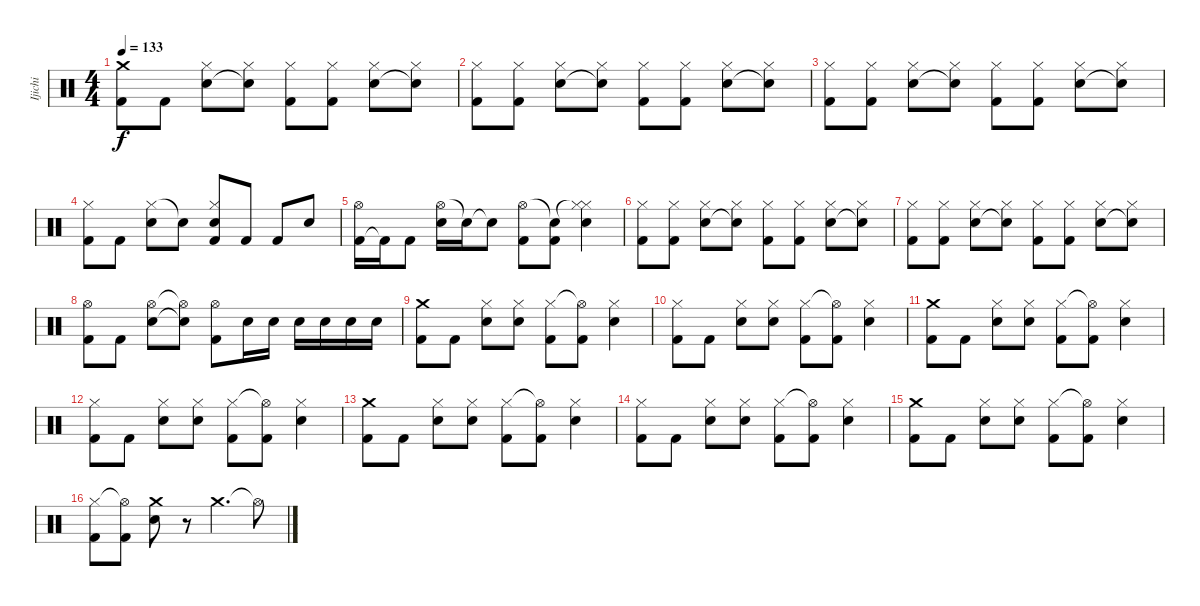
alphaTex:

\track ("Ijichi" "Ijichi") {instrument percussion}
\staff {score}
\articulation defaults
\ts (4 4)
\tempo 133
\clef neutral
\ks c
("Kick (hit) 2" "Crash medium (hit)").8{dy f} "Kick (hit) 2".8 ("Hi-Hat (closed)" "Electric Snare (hit)").8 ("Hi-Hat (closed)" "Electric Snare (hit)"{t}).8 ("Kick (hit) 2" "Hi-Hat (closed)").8 ("Kick (hit) 2" "Hi-Hat (closed)").8 ("Hi-Hat (closed)" "Electric Snare (hit)").8 ("Hi-Hat (closed)" "Electric Snare (hit)"{t}).8 |
("Kick (hit) 2" "Hi-Hat (closed)").8 ("Kick (hit) 2" "Hi-Hat (closed)").8 ("Hi-Hat (closed)" "Electric Snare (hit)").8 ("Hi-Hat (closed)" "Electric Snare (hit)"{t}).8 ("Kick (hit) 2" "Hi-Hat (closed)").8 ("Kick (hit) 2" "Hi-Hat (closed)").8 ("Hi-Hat (closed)" "Electric Snare (hit)").8 ("Hi-Hat (closed)" "Electric Snare (hit)"{t}).8 |
("Kick (hit) 2" "Hi-Hat (closed)").8 ("Kick (hit) 2" "Hi-Hat (closed)").8 ("Hi-Hat (closed)" "Electric Snare (hit)").8 ("Hi-Hat (closed)" "Electric Snare (hit)"{t}).8 ("Kick (hit) 2" "Hi-Hat (closed)").8 ("Kick (hit) 2" "Hi-Hat (closed)").8 ("Hi-Hat (closed)" "Electric Snare (hit)").8 ("Hi-Hat (closed)" "Electric Snare (hit)"{t}).8 |
("Kick (hit) 2" "Hi-Hat (closed)").8 "Kick (hit) 2".8 ("Hi-Hat (closed)" "Electric Snare (hit)").8 "Electric Snare (hit)"{t}.8 ("Kick (hit) 2" "Hi-Hat (closed)" "Electric Snare (hit)").8 "Kick (hit) 2".8 "Kick (hit) 2".8 "Electric Snare (hit)".8 |
("Kick (hit) 2" "Hi-Hat (open)").16 "Kick (hit) 2"{t}.16 "Kick (hit) 2".8 ("Hi-Hat (open)" "Electric Snare (hit)").16 "Electric Snare (hit)"{t}.16 "Electric Snare (hit)"{t}.8 ("Kick (hit) 2" "Hi-Hat (open)").8 ("Kick (hit) 2" "Snare (hit)"{t}).8 ("Hi-Hat (closed)" "Hi-Hat (closed)"{t} "Electric Snare (hit)").4 |
("Kick (hit) 2" "Hi-Hat (closed)").8 ("Kick (hit) 2" "Hi-Hat (closed)").8 ("Hi-Hat (closed)" "Electric Snare (hit)").8 ("Hi-Hat (closed)" "Electric Snare (hit)"{t}).8 ("Kick (hit) 2" "Hi-Hat (closed)").8 ("Kick (hit) 2" "Hi-Hat (closed)").8 ("Hi-Hat (closed)" "Electric Snare (hit)").8 ("Hi-Hat (closed)" "Electric Snare (hit)"{t}).8 |
("Kick (hit) 2" "Hi-Hat (closed)").8 ("Kick (hit) 2" "Hi-Hat (closed)").8 ("Hi-Hat (closed)" "Electric Snare (hit)").8 ("Hi-Hat (closed)" "Electric Snare (hit)"{t}).8 ("Kick (hit) 2" "Hi-Hat (closed)").8 ("Kick (hit) 2" "Hi-Hat (closed)").8 ("Hi-Hat (closed)" "Electric Snare (hit)").8 ("Hi-Hat (closed)" "Electric Snare (hit)"{t}).8 |
("Kick (hit) 2" "Hi-Hat (open)").8 "Kick (hit) 2".8 ("Hi-Hat (open)" "Electric Snare (hit)").8 ("Hi-Hat (open)"{t} "Electric Snare (hit)"{t}).8 ("Kick (hit) 2" "Hi-Hat (open)").8 "Electric Snare (hit)".16 "Electric Snare (hit)".16 "Electric Snare (hit)".16 "Electric Snare (hit)".16 "Electric Snare (hit)".16 "Electric Snare (hit)".16 |
("Kick (hit) 2" "Crash medium (hit)").8 "Kick (hit) 2".8 ("Hi-Hat (closed)" "Electric Snare (hit)").8 ("Hi-Hat (closed)" "Electric Snare (hit)").8 ("Kick (hit) 2" "Hi-Hat (closed)").8 ("Kick (hit) 2" "Hi-Hat (open)"{t}).8 ("Hi-Hat (closed)" "Electric Snare (hit)").4 |
("Kick (hit) 2" "Hi-Hat (closed)").8 "Kick (hit) 2".8 ("Hi-Hat (closed)" "Electric Snare (hit)").8 ("Hi-Hat (closed)" "Electric Snare (hit)").8 ("Kick (hit) 2" "Hi-Hat (closed)").8 ("Kick (hit) 2" "Hi-Hat (open)"{t}).8 ("Hi-Hat (closed)" "Electric Snare (hit)").4 |
("Kick (hit) 2" "Crash medium (hit)").8 "Kick (hit) 2".8 ("Hi-Hat (closed)" "Electric Snare (hit)").8 ("Hi-Hat (closed)" "Electric Snare (hit)").8 ("Kick (hit) 2" "Hi-Hat (closed)").8 ("Kick (hit) 2" "Hi-Hat (open)"{t}).8 ("Hi-Hat (closed)" "Electric Snare (hit)").4 |
("Kick (hit) 2" "Hi-Hat (closed)").8 "Kick (hit) 2".8 ("Hi-Hat (closed)" "Electric Snare (hit)").8 ("Hi-Hat (closed)" "Electric Snare (hit)").8 ("Kick (hit) 2" "Hi-Hat (closed)").8 ("Kick (hit) 2" "Hi-Hat (open)"{t}).8 ("Hi-Hat (closed)" "Electric Snare (hit)").4 |
("Kick (hit) 2" "Crash medium (hit)").8 "Kick (hit) 2".8 ("Hi-Hat (closed)" "Electric Snare (hit)").8 ("Hi-Hat (closed)" "Electric Snare (hit)").8 ("Kick (hit) 2" "Hi-Hat (closed)").8 ("Kick (hit) 2" "Hi-Hat (open)"{t}).8 ("Hi-Hat (closed)" "Electric Snare (hit)").4 |
("Kick (hit) 2" "Hi-Hat (closed)").8 "Kick (hit) 2".8 ("Hi-Hat (closed)" "Electric Snare (hit)").8 ("Hi-Hat (closed)" "Electric Snare (hit)").8 ("Kick (hit) 2" "Hi-Hat (closed)").8 ("Kick (hit) 2" "Hi-Hat (open)"{t}).8 ("Hi-Hat (closed)" "Electric Snare (hit)").4 |
("Kick (hit) 2" "Crash medium (hit)").8 "Kick (hit) 2".8 ("Hi-Hat (closed)" "Electric Snare (hit)").8 ("Hi-Hat (closed)" "Electric Snare (hit)").8 ("Kick (hit) 2" "Hi-Hat (closed)").8 ("Kick (hit) 2" "Hi-Hat (open)"{t}).8 ("Hi-Hat (closed)" "Electric Snare (hit)").4 |
("Kick (hit) 2" "Hi-Hat (closed)").8 ("Kick (hit) 2" "Hi-Hat (open)"{t}).8 ("Crash medium (hit)" "Electric Snare (hit)").8 r.8 "Crash medium (hit)".4{d} "Hi-Hat (open)"{t}.8
